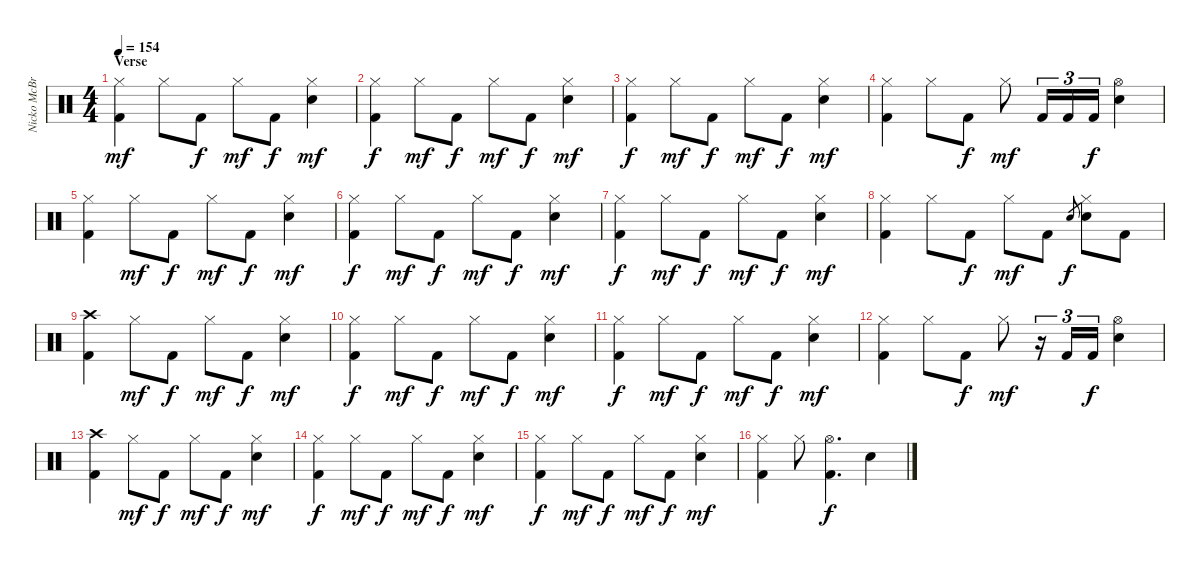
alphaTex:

\track ("Nicko McBrain" "Nicko McBr") {instrument percussion}
\staff {score}
\articulation defaults
\ts (4 4)
\section ("" "Verse")
\tempo 154
\clef neutral
\ks c
("Hi-Hat (closed)" "Kick (hit) 2").4{dy mf} "Hi-Hat (closed)".8 "Kick (hit) 2".8{dy f} "Hi-Hat (closed)".8{dy mf} "Kick (hit) 2".8{dy f} ("Hi-Hat (closed)" "Electric Snare (hit)").4{dy mf} |
("Hi-Hat (closed)" "Kick (hit) 2").4{dy f} "Hi-Hat (closed)".8{dy mf} "Kick (hit) 2".8{dy f} "Hi-Hat (closed)".8{dy mf} "Kick (hit) 2".8{dy f} ("Hi-Hat (closed)" "Electric Snare (hit)").4{dy mf} |
("Hi-Hat (closed)" "Kick (hit) 2").4{dy f} "Hi-Hat (closed)".8{dy mf} "Kick (hit) 2".8{dy f} "Hi-Hat (closed)".8{dy mf} "Kick (hit) 2".8{dy f} ("Hi-Hat (closed)" "Electric Snare (hit)").4{dy mf} |
("Hi-Hat (closed)" "Kick (hit) 2").4 "Hi-Hat (closed)".8 "Kick (hit) 2".8{dy f} "Hi-Hat (closed)".8{dy mf} "Kick (hit) 2".16{tu (3 2)} "Kick (hit) 2".16{tu (3 2)} "Kick (hit) 2".16{tu (3 2) dy f} ("Hi-Hat (open)" "Electric Snare (hit)").4 |
("Hi-Hat (closed)" "Kick (hit) 2").4 "Hi-Hat (closed)".8{dy mf} "Kick (hit) 2".8{dy f} "Hi-Hat (closed)".8{dy mf} "Kick (hit) 2".8{dy f} ("Hi-Hat (closed)" "Electric Snare (hit)").4{dy mf} |
("Hi-Hat (closed)" "Kick (hit) 2").4{dy f} "Hi-Hat (closed)".8{dy mf} "Kick (hit) 2".8{dy f} "Hi-Hat (closed)".8{dy mf} "Kick (hit) 2".8{dy f} ("Hi-Hat (closed)" "Electric Snare (hit)").4{dy mf} |
("Hi-Hat (closed)" "Kick (hit) 2").4{dy f} "Hi-Hat (closed)".8{dy mf} "Kick (hit) 2".8{dy f} "Hi-Hat (closed)".8{dy mf} "Kick (hit) 2".8{dy f} ("Hi-Hat (closed)" "Electric Snare (hit)").4{dy mf} |
("Hi-Hat (closed)" "Kick (hit) 2").4 "Hi-Hat (closed)".8 "Kick (hit) 2".8{dy f} "Hi-Hat (closed)".8{dy mf} "Kick (hit) 2".8 "Snare (hit) 2".8{gr dy f} ("Hi-Hat (closed)" "Electric Snare (hit)").8 "Kick (hit) 2".8 |
("Crash high (hit)" "Kick (hit) 2").4 "Hi-Hat (closed)".8{dy mf} "Kick (hit) 2".8{dy f} "Hi-Hat (closed)".8{dy mf} "Kick (hit) 2".8{dy f} ("Hi-Hat (closed)" "Electric Snare (hit)").4{dy mf} |
("Hi-Hat (closed)" "Kick (hit) 2").4{dy f} "Hi-Hat (closed)".8{dy mf} "Kick (hit) 2".8{dy f} "Hi-Hat (closed)".8{dy mf} "Kick (hit) 2".8{dy f} ("Hi-Hat (closed)" "Electric Snare (hit)").4{dy mf} |
("Hi-Hat (closed)" "Kick (hit) 2").4{dy f} "Hi-Hat (closed)".8{dy mf} "Kick (hit) 2".8{dy f} "Hi-Hat (closed)".8{dy mf} "Kick (hit) 2".8{dy f} ("Hi-Hat (closed)" "Electric Snare (hit)").4{dy mf} |
("Hi-Hat (closed)" "Kick (hit) 2").4 "Hi-Hat (closed)".8 "Kick (hit) 2".8{dy f} "Hi-Hat (closed)".8{dy mf} r.16{tu (3 2)} "Kick (hit) 2".16{tu (3 2)} "Kick (hit) 2".16{tu (3 2) dy f} ("Hi-Hat (open)" "Electric Snare (hit)").4 |
("Crash high (hit)" "Kick (hit) 2").4 "Hi-Hat (closed)".8{dy mf} "Kick (hit) 2".8{dy f} "Hi-Hat (closed)".8{dy mf} "Kick (hit) 2".8{dy f} ("Hi-Hat (closed)" "Electric Snare (hit)").4{dy mf} |
("Hi-Hat (closed)" "Kick (hit) 2").4{dy f} "Hi-Hat (closed)".8{dy mf} "Kick (hit) 2".8{dy f} "Hi-Hat (closed)".8{dy mf} "Kick (hit) 2".8{dy f} ("Hi-Hat (closed)" "Electric Snare (hit)").4{dy mf} |
("Hi-Hat (closed)" "Kick (hit) 2").4{dy f} "Hi-Hat (closed)".8{dy mf} "Kick (hit) 2".8{dy f} "Hi-Hat (closed)".8{dy mf} "Kick (hit) 2".8{dy f} ("Hi-Hat (closed)" "Electric Snare (hit)").4{dy mf} |
("Hi-Hat (closed)" "Kick (hit) 2").4 "Hi-Hat (closed)".8 ("Hi-Hat (open)" "Kick (hit) 2").4{d dy f} "Electric Snare (hit)".4
